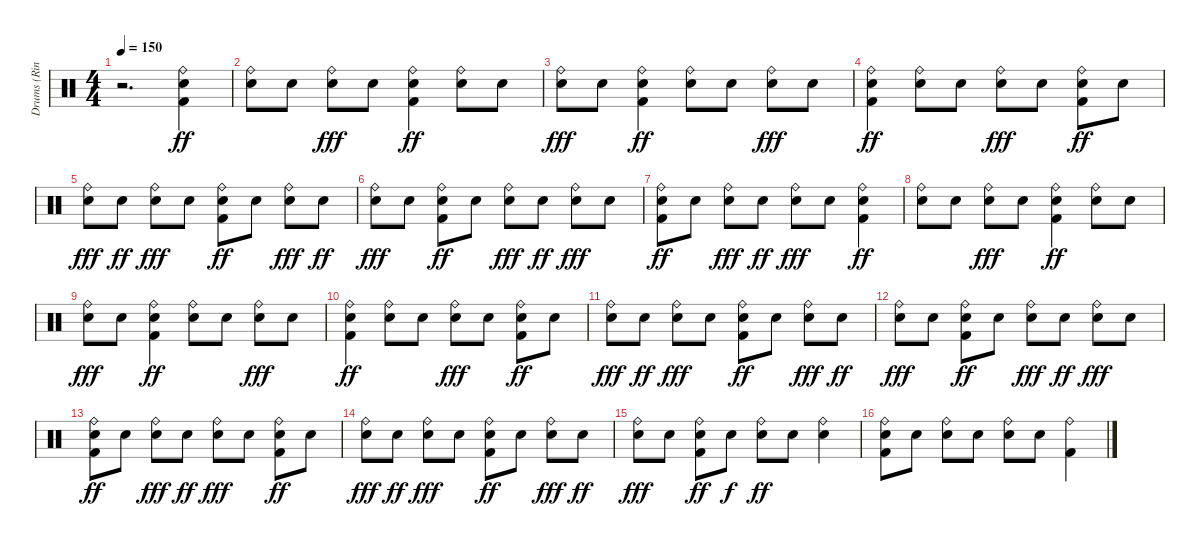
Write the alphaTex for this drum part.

\track ("Drums (Ringo Starr)" "Drums (Rin") {instrument percussion}
\staff {score}
\articulation defaults
\ts (4 4)
\tempo 150
\clef neutral
\ks c
r.2{d dy ff} ("Ride (bell)" "Snare (hit) 2" "Kick (hit) 2").4{volume 2} |
("Snare (hit) 2" "Ride (bell)").8{volume 2} "Snare (hit) 2".8{volume 2} ("Ride (bell)" "Snare (hit) 2").8{dy fff volume 2} "Snare (hit) 2".8{volume 2} ("Ride (bell)" "Snare (hit) 2" "Kick (hit) 2").4{dy ff} ("Snare (hit) 2" "Ride (bell)").8{volume 2} "Snare (hit) 2".8{volume 3} |
("Ride (bell)" "Snare (hit) 2").8{dy fff} "Snare (hit) 2".8{volume 3} ("Ride (bell)" "Snare (hit) 2" "Kick (hit) 2").4{dy ff volume 3} ("Snare (hit) 2" "Ride (bell)").8{volume 3} "Snare (hit) 2".8{volume 3} ("Ride (bell)" "Snare (hit) 2").8{dy fff volume 3} "Snare (hit) 2".8 |
("Ride (bell)" "Snare (hit) 2" "Kick (hit) 2").4{dy ff volume 3} ("Snare (hit) 2" "Ride (bell)").8{volume 4} "Snare (hit) 2".8 ("Ride (bell)" "Snare (hit) 2").8{dy fff volume 4} "Snare (hit) 2".8{volume 4} ("Kick (hit) 2" "Ride (bell)" "Snare (hit) 2").8{dy ff volume 4} "Snare (hit) 2".8 |
("Ride (bell)" "Snare (hit) 2").8{dy fff volume 4} "Snare (hit) 2".8{dy ff volume 4} ("Ride (bell)" "Snare (hit) 2").8{dy fff volume 4} "Snare (hit) 2".8 ("Kick (hit) 2" "Ride (bell)" "Snare (hit) 2").8{dy ff volume 4} "Snare (hit) 2".8{volume 5} ("Ride (bell)" "Snare (hit) 2").8{dy fff} "Snare (hit) 2".8{dy ff volume 5} |
("Ride (bell)" "Snare (hit) 2").8{dy fff volume 5} "Snare (hit) 2".8{volume 5} ("Kick (hit) 2" "Ride (bell)" "Snare (hit) 2").8{dy ff} "Snare (hit) 2".8{volume 5} ("Ride (bell)" "Snare (hit) 2").8{dy fff volume 5} "Snare (hit) 2".8{dy ff volume 5} ("Ride (bell)" "Snare (hit) 2").8{dy fff} "Snare (hit) 2".8{volume 6} |
("Kick (hit) 2" "Ride (bell)" "Snare (hit) 2").8{dy ff volume 6} "Snare (hit) 2".8{volume 6} ("Ride (bell)" "Snare (hit) 2").8{dy fff} "Snare (hit) 2".8{dy ff volume 6} ("Ride (bell)" "Snare (hit) 2").8{dy fff volume 6} "Snare (hit) 2".8 ("Ride (bell)" "Snare (hit) 2" "Kick (hit) 2").4{dy ff volume 6} |
("Snare (hit) 2" "Ride (bell)").8{volume 6} "Snare (hit) 2".8 ("Ride (bell)" "Snare (hit) 2").8{dy fff volume 6} "Snare (hit) 2".8{volume 7} ("Ride (bell)" "Snare (hit) 2" "Kick (hit) 2").4{dy ff volume 7} ("Snare (hit) 2" "Ride (bell)").8{volume 7} "Snare (hit) 2".8{volume 7} |
("Ride (bell)" "Snare (hit) 2").8{dy fff volume 7} "Snare (hit) 2".8 ("Ride (bell)" "Snare (hit) 2" "Kick (hit) 2").4{dy ff volume 7} ("Snare (hit) 2" "Ride (bell)").8{volume 8} "Snare (hit) 2".8 ("Ride (bell)" "Snare (hit) 2").8{dy fff volume 8} "Snare (hit) 2".8{volume 8} |
("Ride (bell)" "Snare (hit) 2" "Kick (hit) 2").4{dy ff} ("Snare (hit) 2" "Ride (bell)").8{volume 8} "Snare (hit) 2".8{volume 8} ("Ride (bell)" "Snare (hit) 2").8{dy fff} "Snare (hit) 2".8{volume 8} ("Kick (hit) 2" "Ride (bell)" "Snare (hit) 2").8{dy ff volume 8} "Snare (hit) 2".8{volume 8} |
("Ride (bell)" "Snare (hit) 2").8{dy fff} "Snare (hit) 2".8{dy ff volume 9} ("Ride (bell)" "Snare (hit) 2").8{dy fff volume 9} "Snare (hit) 2".8{volume 9} ("Kick (hit) 2" "Ride (bell)" "Snare (hit) 2").8{dy ff} "Snare (hit) 2".8{volume 9} ("Ride (bell)" "Snare (hit) 2").8{dy fff volume 9} "Snare (hit) 2".8{dy ff} |
("Ride (bell)" "Snare (hit) 2").8{dy fff volume 9} "Snare (hit) 2".8{volume 9} ("Kick (hit) 2" "Ride (bell)" "Snare (hit) 2").8{dy ff volume 10} "Snare (hit) 2".8 ("Ride (bell)" "Snare (hit) 2").8{dy fff volume 10} "Snare (hit) 2".8{dy ff volume 10} ("Ride (bell)" "Snare (hit) 2").8{dy fff volume 10} "Snare (hit) 2".8 |
("Kick (hit) 2" "Ride (bell)" "Snare (hit) 2").8{dy ff volume 10} "Snare (hit) 2".8{volume 10} ("Ride (bell)" "Snare (hit) 2").8{dy fff volume 10} "Snare (hit) 2".8{dy ff} ("Ride (bell)" "Snare (hit) 2").8{dy fff volume 10} "Snare (hit) 2".8{volume 10} ("Kick (hit) 2" "Ride (bell)" "Snare (hit) 2").8{dy ff volume 11} "Snare (hit) 2".8 |
("Ride (bell)" "Snare (hit) 2").8{dy fff} "Snare (hit) 2".8{dy ff} ("Ride (bell)" "Snare (hit) 2").8{dy fff} "Snare (hit) 2".8 ("Kick (hit) 2" "Ride (bell)" "Snare (hit) 2").8{dy ff} "Snare (hit) 2".8 ("Ride (bell)" "Snare (hit) 2").8{dy fff} "Snare (hit) 2".8{dy ff} |
("Ride (bell)" "Snare (hit) 2").8{dy fff} "Snare (hit) 2".8 ("Kick (hit) 2" "Ride (bell)" "Snare (hit) 2").8{dy ff} "Snare (hit) 2".8{dy f} ("Ride (bell)" "Snare (hit) 2").8{dy ff} "Snare (hit) 2".8 ("Snare (hit) 2" "Ride (bell)").4 |
("Kick (hit) 2" "Ride (bell)" "Snare (hit) 2").8 "Snare (hit) 2".8 ("Ride (bell)" "Snare (hit) 2").8 "Snare (hit) 2".8 ("Ride (bell)" "Snare (hit) 2").8 "Snare (hit) 2".8 ("Kick (hit) 2" "Ride (bell)").4
